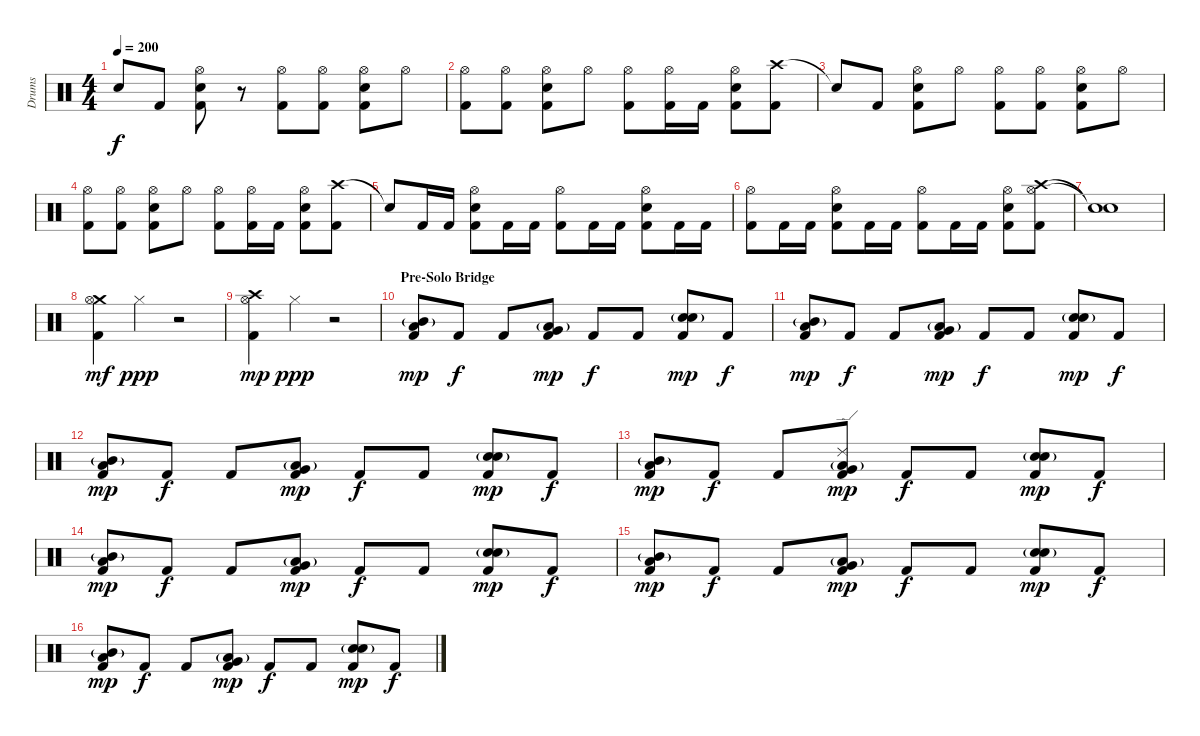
\track ("Drums" "Drums") {instrument percussion}
\staff {score}
\articulation defaults
\ts (4 4)
\tempo 200
\clef neutral
\ks c "Snare (hit)"{t}.8{dy f} "Kick (hit) 2".8
("Hi-Hat (open)" "Snare (hit) 2" "Kick (hit) 2").8 r.8 ("Hi-Hat (open)" "Kick (hit) 2").8 ("Hi-Hat (open)" "Kick (hit) 2").8 ("Hi-Hat (open)" "Snare (hit) 2" "Kick (hit) 2").8 "Hi-Hat (open)".8 |
("Hi-Hat (open)" "Kick (hit) 2").8 ("Hi-Hat (open)" "Kick (hit) 2").8 ("Hi-Hat (open)" "Snare (hit) 2" "Kick (hit) 2").8 "Hi-Hat (open)".8 ("Hi-Hat (open)" "Kick (hit) 2").8 ("Hi-Hat (open)" "Kick (hit) 2").16 "Kick (hit) 2".16 ("Hi-Hat (open)" "Snare (hit) 2" "Kick (hit) 2").8 ("Crash high (hit)" "Kick (hit) 2").8 |
"Snare (hit)"{t}.8 "Kick (hit) 2".8 ("Hi-Hat (open)" "Snare (hit) 2" "Kick (hit) 2").8 "Hi-Hat (open)".8 ("Hi-Hat (open)" "Kick (hit) 2").8 ("Hi-Hat (open)" "Kick (hit) 2").8 ("Hi-Hat (open)" "Snare (hit) 2" "Kick (hit) 2").8 "Hi-Hat (open)".8 |
("Hi-Hat (open)" "Kick (hit) 2").8 ("Hi-Hat (open)" "Kick (hit) 2").8 ("Hi-Hat (open)" "Snare (hit) 2" "Kick (hit) 2").8 "Hi-Hat (open)".8 ("Hi-Hat (open)" "Kick (hit) 2").8 ("Hi-Hat (open)" "Kick (hit) 2").16 "Kick (hit) 2".16 ("Hi-Hat (open)" "Snare (hit) 2" "Kick (hit) 2").8 ("Crash high (hit)" "Kick (hit) 2").8 |
"Snare (hit)"{t}.8 "Kick (hit) 2".16 "Kick (hit) 2".16 ("Hi-Hat (open)" "Snare (hit) 2" "Kick (hit) 2").8 "Kick (hit) 2".16 "Kick (hit) 2".16 ("Hi-Hat (open)" "Kick (hit) 2").8 "Kick (hit) 2".16 "Kick (hit) 2".16 ("Hi-Hat (open)" "Snare (hit) 2" "Kick (hit) 2").8 "Kick (hit) 2".16 "Kick (hit) 2".16 |
("Hi-Hat (open)" "Kick (hit) 2").8 "Kick (hit) 2".16 "Kick (hit) 2".16 ("Hi-Hat (open)" "Snare (hit) 2" "Kick (hit) 2").8 "Kick (hit) 2".16 "Kick (hit) 2".16 ("Hi-Hat (open)" "Kick (hit) 2").8 "Kick (hit) 2".16 "Kick (hit) 2".16 ("Hi-Hat (open)" "Snare (hit) 2" "Kick (hit) 2").8 ("Crash high (hit)" "Hi-Hat (open)" "Kick (hit) 2").8 |
("Snare (hit)"{t} "Snare (hit)"{t}).1 |
("Crash medium (hit)" "Hi-Hat (open)" "Kick (hit) 2").4{dy mf} "Hi-Hat (closed)".4{dy ppp} r.2 |
("Crash high (hit)" "Hi-Hat (open)" "Kick (hit) 2").4{dy mp} "Hi-Hat (closed)".4{dy ppp} r.2 |
\section ("" "Pre-Solo Bridge")
("Mid Tom (hit)"{g} "Low Tom (hit)" "Kick (hit) 2").8{dy mp} "Kick (hit) 2".8{dy f} "Kick (hit) 2".8 ("Low Tom (hit)"{g} "Very Low Tom (hit)" "Kick (hit) 2").8{dy mp} "Kick (hit) 2".8{dy f} "Kick (hit) 2".8 ("Electric Snare (hit)"{g} "Snare (hit) 2" "Kick (hit) 2").8{dy mp} "Kick (hit) 2".8{dy f} |
("Mid Tom (hit)"{g} "Low Tom (hit)" "Kick (hit) 2").8{dy mp} "Kick (hit) 2".8{dy f} "Kick (hit) 2".8 ("Low Tom (hit)"{g} "Very Low Tom (hit)" "Kick (hit) 2").8{dy mp} "Kick (hit) 2".8{dy f} "Kick (hit) 2".8 ("Electric Snare (hit)"{g} "Snare (hit) 2" "Kick (hit) 2").8{dy mp} "Kick (hit) 2".8{dy f} |
("Mid Tom (hit)"{g} "Low Tom (hit)" "Kick (hit) 2").8{dy mp} "Kick (hit) 2".8{dy f} "Kick (hit) 2".8 ("Low Tom (hit)"{g} "Very Low Tom (hit)" "Kick (hit) 2").8{dy mp} "Kick (hit) 2".8{dy f} "Kick (hit) 2".8 ("Electric Snare (hit)"{g} "Snare (hit) 2" "Kick (hit) 2").8{dy mp} "Kick (hit) 2".8{dy f} |
("Mid Tom (hit)"{g} "Low Tom (hit)" "Kick (hit) 2").8{dy mp} "Kick (hit) 2".8{dy f} "Kick (hit) 2".8 ("Ride (edge) 2" "Low Tom (hit)"{g} "Very Low Tom (hit)" "Kick (hit) 2").8{dy mp} "Kick (hit) 2".8{dy f} "Kick (hit) 2".8 ("Electric Snare (hit)"{g} "Snare (hit) 2" "Kick (hit) 2").8{dy mp} "Kick (hit) 2".8{dy f} |
("Mid Tom (hit)"{g} "Low Tom (hit)" "Kick (hit) 2").8{dy mp} "Kick (hit) 2".8{dy f} "Kick (hit) 2".8 ("Low Tom (hit)"{g} "Very Low Tom (hit)" "Kick (hit) 2").8{dy mp} "Kick (hit) 2".8{dy f} "Kick (hit) 2".8 ("Electric Snare (hit)"{g} "Snare (hit) 2" "Kick (hit) 2").8{dy mp} "Kick (hit) 2".8{dy f} |
("Mid Tom (hit)"{g} "Low Tom (hit)" "Kick (hit) 2").8{dy mp} "Kick (hit) 2".8{dy f} "Kick (hit) 2".8 ("Low Tom (hit)"{g} "Very Low Tom (hit)" "Kick (hit) 2").8{dy mp} "Kick (hit) 2".8{dy f} "Kick (hit) 2".8 ("Electric Snare (hit)"{g} "Snare (hit) 2" "Kick (hit) 2").8{dy mp} "Kick (hit) 2".8{dy f} |
("Mid Tom (hit)"{g} "Low Tom (hit)" "Kick (hit) 2").8{dy mp} "Kick (hit) 2".8{dy f} "Kick (hit) 2".8 ("Low Tom (hit)"{g} "Very Low Tom (hit)" "Kick (hit) 2").8{dy mp} "Kick (hit) 2".8{dy f} "Kick (hit) 2".8 ("Electric Snare (hit)"{g} "Snare (hit) 2" "Kick (hit) 2").8{dy mp} "Kick (hit) 2".8{dy f}
